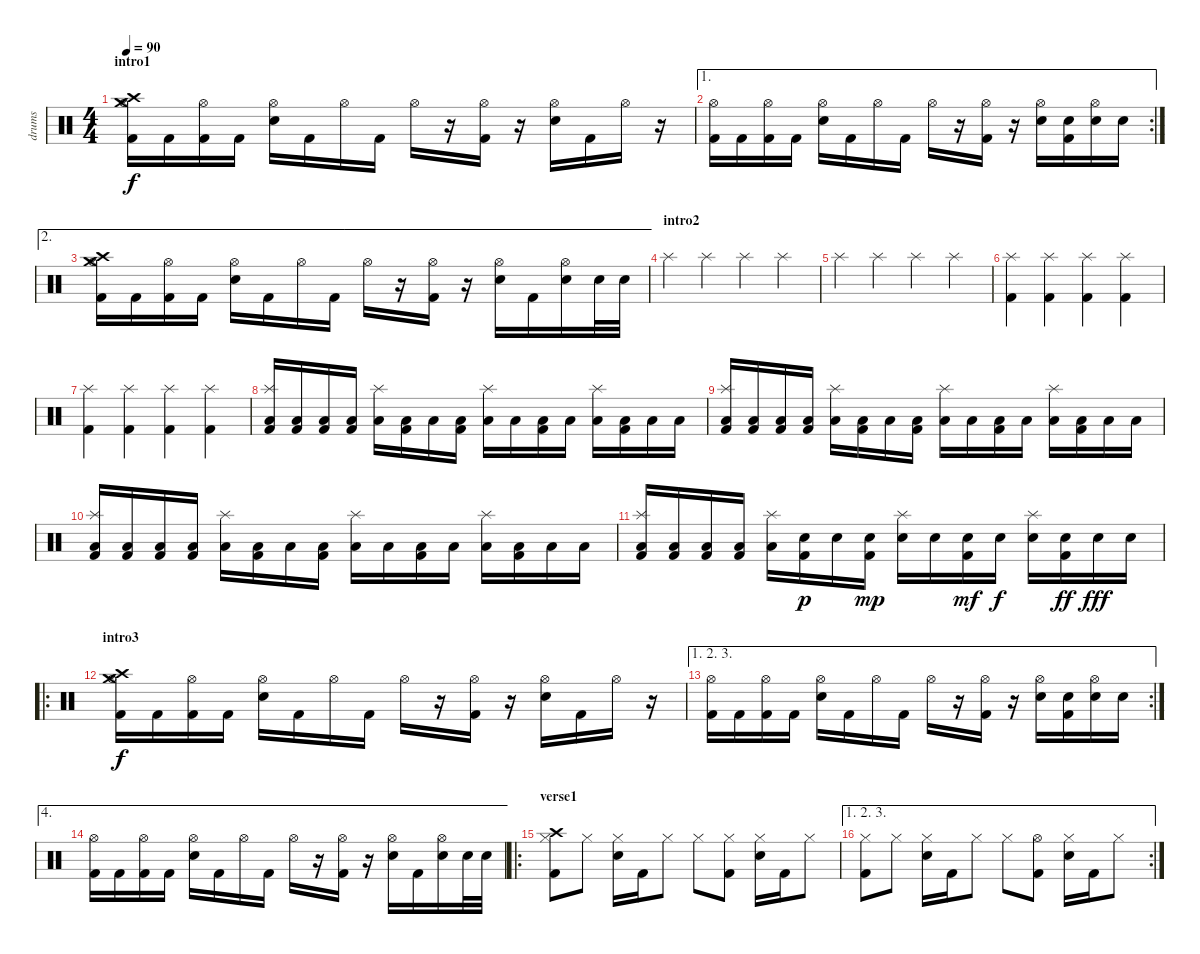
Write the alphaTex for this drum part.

\track ("drums" "drums") {instrument percussion}
\staff {score}
\articulation defaults
\ts (4 4)
\section ("" "intro1")
\tempo 90
\clef neutral
\ks c
("Crash high (hit)" "Crash medium (hit)" "Hi-Hat (open)" "Kick (hit) 2").16{dy f} "Kick (hit) 2".16 ("Hi-Hat (open)" "Kick (hit) 2").16 "Kick (hit) 2".16 ("Hi-Hat (open)" "Electric Snare (hit)").16 "Kick (hit) 2".16 "Hi-Hat (open)".16 "Kick (hit) 2".16 "Hi-Hat (open)".16 r.16 ("Hi-Hat (open)" "Kick (hit) 2").16 r.16 ("Hi-Hat (open)" "Electric Snare (hit)").16 "Kick (hit) 2".16 "Hi-Hat (open)".16 r.16 |
\ae 1
\rc 2
("Hi-Hat (open)" "Kick (hit) 2").16 "Kick (hit) 2".16 ("Hi-Hat (open)" "Kick (hit) 2").16 "Kick (hit) 2".16 ("Hi-Hat (open)" "Electric Snare (hit)").16 "Kick (hit) 2".16 "Hi-Hat (open)".16 "Kick (hit) 2".16 "Hi-Hat (open)".16 r.16 ("Hi-Hat (open)" "Kick (hit) 2").16 r.16 ("Hi-Hat (open)" "Electric Snare (hit)").16 ("Electric Snare (hit)" "Kick (hit) 2").16 ("Hi-Hat (open)" "Electric Snare (hit)").16 "Electric Snare (hit)".16 |
\ae 2
("Crash high (hit)" "Crash medium (hit)" "Hi-Hat (open)" "Kick (hit) 2").16 "Kick (hit) 2".16 ("Hi-Hat (open)" "Kick (hit) 2").16 "Kick (hit) 2".16 ("Hi-Hat (open)" "Electric Snare (hit)").16 "Kick (hit) 2".16 "Hi-Hat (open)".16 "Kick (hit) 2".16 "Hi-Hat (open)".16 r.16 ("Hi-Hat (open)" "Kick (hit) 2").16 r.16 ("Hi-Hat (open)" "Electric Snare (hit)").16 "Kick (hit) 2".16 ("Hi-Hat (open)" "Electric Snare (hit)").16 "Electric Snare (hit)".32 "Electric Snare (hit)".32 |
\section ("" "intro2")
"Splash (hit)".4 "Splash (hit)".4 "Splash (hit)".4 "Splash (hit)".4 |
"Splash (hit)".4 "Splash (hit)".4 "Splash (hit)".4 "Splash (hit)".4 |
("Splash (hit)" "Kick (hit) 2").4 ("Splash (hit)" "Kick (hit) 2").4 ("Splash (hit)" "Kick (hit) 2").4 ("Splash (hit)" "Kick (hit) 2").4 |
("Splash (hit)" "Kick (hit) 2").4 ("Splash (hit)" "Kick (hit) 2").4 ("Splash (hit)" "Kick (hit) 2").4 ("Splash (hit)" "Kick (hit) 2").4 |
("Splash (hit)" "Low Floor Tom (hit)" "Kick (hit) 2").16 ("Low Floor Tom (hit)" "Kick (hit) 2").16 ("Low Floor Tom (hit)" "Kick (hit) 2").16 ("Low Floor Tom (hit)" "Kick (hit) 2").16 ("Splash (hit)" "Low Floor Tom (hit)").16 ("Low Floor Tom (hit)" "Kick (hit) 2").16 "Low Floor Tom (hit)".16 ("Low Floor Tom (hit)" "Kick (hit) 2").16 ("Splash (hit)" "Low Floor Tom (hit)").16 "Low Floor Tom (hit)".16 ("Low Floor Tom (hit)" "Kick (hit) 2").16 "Low Floor Tom (hit)".16 ("Splash (hit)" "Low Floor Tom (hit)").16 ("Low Floor Tom (hit)" "Kick (hit) 2").16 "Low Floor Tom (hit)".16 "Low Floor Tom (hit)".16 |
("Splash (hit)" "Low Floor Tom (hit)" "Kick (hit) 2").16 ("Low Floor Tom (hit)" "Kick (hit) 2").16 ("Low Floor Tom (hit)" "Kick (hit) 2").16 ("Low Floor Tom (hit)" "Kick (hit) 2").16 ("Splash (hit)" "Low Floor Tom (hit)").16 ("Low Floor Tom (hit)" "Kick (hit) 2").16 "Low Floor Tom (hit)".16 ("Low Floor Tom (hit)" "Kick (hit) 2").16 ("Splash (hit)" "Low Floor Tom (hit)").16 "Low Floor Tom (hit)".16 ("Low Floor Tom (hit)" "Kick (hit) 2").16 "Low Floor Tom (hit)".16 ("Splash (hit)" "Low Floor Tom (hit)").16 ("Low Floor Tom (hit)" "Kick (hit) 2").16 "Low Floor Tom (hit)".16 "Low Floor Tom (hit)".16 |
("Splash (hit)" "Low Floor Tom (hit)" "Kick (hit) 2").16 ("Low Floor Tom (hit)" "Kick (hit) 2").16 ("Low Floor Tom (hit)" "Kick (hit) 2").16 ("Low Floor Tom (hit)" "Kick (hit) 2").16 ("Splash (hit)" "Low Floor Tom (hit)").16 ("Low Floor Tom (hit)" "Kick (hit) 2").16 "Low Floor Tom (hit)".16 ("Low Floor Tom (hit)" "Kick (hit) 2").16 ("Splash (hit)" "Low Floor Tom (hit)").16 "Low Floor Tom (hit)".16 ("Low Floor Tom (hit)" "Kick (hit) 2").16 "Low Floor Tom (hit)".16 ("Splash (hit)" "Low Floor Tom (hit)").16 ("Low Floor Tom (hit)" "Kick (hit) 2").16 "Low Floor Tom (hit)".16 "Low Floor Tom (hit)".16 |
("Splash (hit)" "Low Floor Tom (hit)" "Kick (hit) 2").16 ("Low Floor Tom (hit)" "Kick (hit) 2").16 ("Low Floor Tom (hit)" "Kick (hit) 2").16 ("Low Floor Tom (hit)" "Kick (hit) 2").16 ("Splash (hit)" "Low Floor Tom (hit)").16 ("Electric Snare (hit)" "Kick (hit) 2").16{dy p} "Electric Snare (hit)".16 ("Electric Snare (hit)" "Kick (hit) 2").16{dy mp} ("Splash (hit)" "Electric Snare (hit)").16 "Electric Snare (hit)".16 ("Electric Snare (hit)" "Kick (hit) 2").16{dy mf} "Electric Snare (hit)".16{dy f} ("Splash (hit)" "Electric Snare (hit)").16 ("Electric Snare (hit)" "Kick (hit) 2").16{dy ff} "Electric Snare (hit)".16{dy fff} "Electric Snare (hit)".16 |
\ro
\section ("" "intro3")
("Crash high (hit)" "Crash medium (hit)" "Hi-Hat (open)" "Kick (hit) 2").16{dy f} "Kick (hit) 2".16 ("Hi-Hat (open)" "Kick (hit) 2").16 "Kick (hit) 2".16 ("Hi-Hat (open)" "Electric Snare (hit)").16 "Kick (hit) 2".16 "Hi-Hat (open)".16 "Kick (hit) 2".16 "Hi-Hat (open)".16 r.16 ("Hi-Hat (open)" "Kick (hit) 2").16 r.16 ("Hi-Hat (open)" "Electric Snare (hit)").16 "Kick (hit) 2".16 "Hi-Hat (open)".16 r.16 |
\ae (1 2 3)
\rc 2
("Hi-Hat (open)" "Kick (hit) 2").16 "Kick (hit) 2".16 ("Hi-Hat (open)" "Kick (hit) 2").16 "Kick (hit) 2".16 ("Hi-Hat (open)" "Electric Snare (hit)").16 "Kick (hit) 2".16 "Hi-Hat (open)".16 "Kick (hit) 2".16 "Hi-Hat (open)".16 r.16 ("Hi-Hat (open)" "Kick (hit) 2").16 r.16 ("Hi-Hat (open)" "Electric Snare (hit)").16 ("Electric Snare (hit)" "Kick (hit) 2").16 ("Hi-Hat (open)" "Electric Snare (hit)").16 "Electric Snare (hit)".16 |
\ae 4
("Hi-Hat (open)" "Kick (hit) 2").16 "Kick (hit) 2".16 ("Hi-Hat (open)" "Kick (hit) 2").16 "Kick (hit) 2".16 ("Hi-Hat (open)" "Electric Snare (hit)").16 "Kick (hit) 2".16 "Hi-Hat (open)".16 "Kick (hit) 2".16 "Hi-Hat (open)".16 r.16 ("Hi-Hat (open)" "Kick (hit) 2").16 r.16 ("Hi-Hat (open)" "Electric Snare (hit)").16 "Kick (hit) 2".16 ("Hi-Hat (open)" "Electric Snare (hit)").16 "Electric Snare (hit)".32 "Electric Snare (hit)".32 |
\ro
\section ("" "verse1")
("Crash high (hit)" "Hi-Hat (closed)" "Kick (hit) 2").8 "Hi-Hat (closed)".8 ("Hi-Hat (closed)" "Electric Snare (hit)").16 "Kick (hit) 2".16 "Hi-Hat (closed)".8 "Hi-Hat (closed)".8 ("Hi-Hat (closed)" "Kick (hit) 2").8 ("Hi-Hat (closed)" "Electric Snare (hit)").16 "Kick (hit) 2".16 "Hi-Hat (closed)".8 |
\ae (1 2 3)
\rc 2
("Hi-Hat (closed)" "Kick (hit) 2").8 "Hi-Hat (closed)".8 ("Hi-Hat (closed)" "Electric Snare (hit)").16 "Kick (hit) 2".16 "Hi-Hat (closed)".8 "Hi-Hat (closed)".8 ("Hi-Hat (open)" "Kick (hit) 2").8 ("Hi-Hat (closed)" "Electric Snare (hit)").16 "Kick (hit) 2".16 "Hi-Hat (closed)".8
